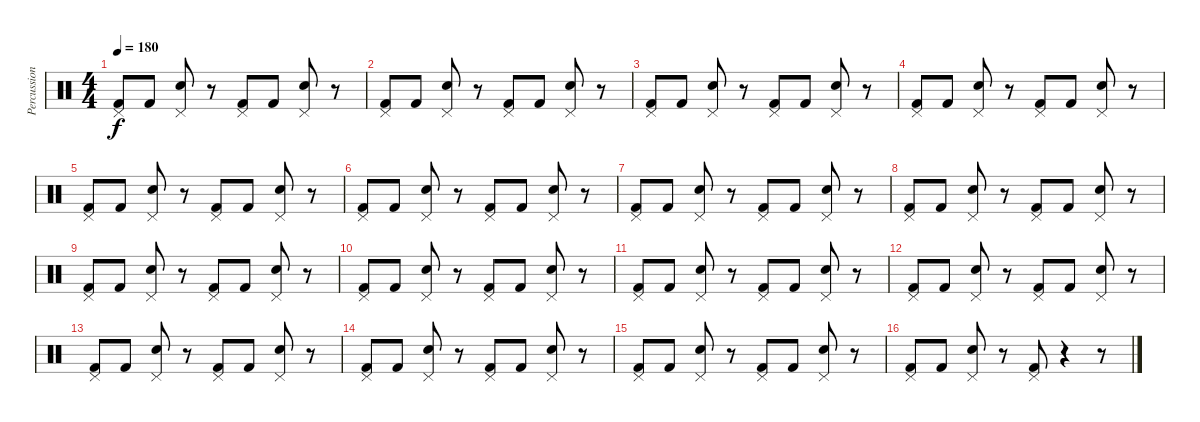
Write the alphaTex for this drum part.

\track ("Percussion" "Percussion") {instrument percussion}
\staff {score}
\articulation defaults
\ts (4 4)
\tempo 180
\clef neutral
\ks c
("Pedal Hi-Hat (hit)" "Kick (hit) 2").8{dy f} "Kick (hit) 2".8 ("Pedal Hi-Hat (hit)" "Electric Snare (hit)").8 r.8 ("Pedal Hi-Hat (hit)" "Kick (hit) 2").8 "Kick (hit) 2".8 ("Pedal Hi-Hat (hit)" "Electric Snare (hit)").8 r.8 |
("Pedal Hi-Hat (hit)" "Kick (hit) 2").8 "Kick (hit) 2".8 ("Pedal Hi-Hat (hit)" "Electric Snare (hit)").8 r.8 ("Pedal Hi-Hat (hit)" "Kick (hit) 2").8 "Kick (hit) 2".8 ("Pedal Hi-Hat (hit)" "Electric Snare (hit)").8 r.8 |
("Pedal Hi-Hat (hit)" "Kick (hit) 2").8 "Kick (hit) 2".8 ("Pedal Hi-Hat (hit)" "Electric Snare (hit)").8 r.8 ("Pedal Hi-Hat (hit)" "Kick (hit) 2").8 "Kick (hit) 2".8 ("Pedal Hi-Hat (hit)" "Electric Snare (hit)").8 r.8 |
("Pedal Hi-Hat (hit)" "Kick (hit) 2").8 "Kick (hit) 2".8 ("Pedal Hi-Hat (hit)" "Electric Snare (hit)").8 r.8 ("Pedal Hi-Hat (hit)" "Kick (hit) 2").8 "Kick (hit) 2".8 ("Pedal Hi-Hat (hit)" "Electric Snare (hit)").8 r.8 |
("Pedal Hi-Hat (hit)" "Kick (hit) 2").8 "Kick (hit) 2".8 ("Pedal Hi-Hat (hit)" "Electric Snare (hit)").8 r.8 ("Pedal Hi-Hat (hit)" "Kick (hit) 2").8 "Kick (hit) 2".8 ("Pedal Hi-Hat (hit)" "Electric Snare (hit)").8 r.8 |
("Pedal Hi-Hat (hit)" "Kick (hit) 2").8 "Kick (hit) 2".8 ("Pedal Hi-Hat (hit)" "Electric Snare (hit)").8 r.8 ("Pedal Hi-Hat (hit)" "Kick (hit) 2").8 "Kick (hit) 2".8 ("Pedal Hi-Hat (hit)" "Electric Snare (hit)").8 r.8 |
("Pedal Hi-Hat (hit)" "Kick (hit) 2").8 "Kick (hit) 2".8 ("Pedal Hi-Hat (hit)" "Electric Snare (hit)").8 r.8 ("Pedal Hi-Hat (hit)" "Kick (hit) 2").8 "Kick (hit) 2".8 ("Pedal Hi-Hat (hit)" "Electric Snare (hit)").8 r.8 |
("Pedal Hi-Hat (hit)" "Kick (hit) 2").8 "Kick (hit) 2".8 ("Pedal Hi-Hat (hit)" "Electric Snare (hit)").8 r.8 ("Pedal Hi-Hat (hit)" "Kick (hit) 2").8 "Kick (hit) 2".8 ("Pedal Hi-Hat (hit)" "Electric Snare (hit)").8 r.8 |
("Pedal Hi-Hat (hit)" "Kick (hit) 2").8 "Kick (hit) 2".8 ("Pedal Hi-Hat (hit)" "Electric Snare (hit)").8 r.8 ("Pedal Hi-Hat (hit)" "Kick (hit) 2").8 "Kick (hit) 2".8 ("Pedal Hi-Hat (hit)" "Electric Snare (hit)").8 r.8 |
("Pedal Hi-Hat (hit)" "Kick (hit) 2").8 "Kick (hit) 2".8 ("Pedal Hi-Hat (hit)" "Electric Snare (hit)").8 r.8 ("Pedal Hi-Hat (hit)" "Kick (hit) 2").8 "Kick (hit) 2".8 ("Pedal Hi-Hat (hit)" "Electric Snare (hit)").8 r.8 |
("Pedal Hi-Hat (hit)" "Kick (hit) 2").8 "Kick (hit) 2".8 ("Pedal Hi-Hat (hit)" "Electric Snare (hit)").8 r.8 ("Pedal Hi-Hat (hit)" "Kick (hit) 2").8 "Kick (hit) 2".8 ("Pedal Hi-Hat (hit)" "Electric Snare (hit)").8 r.8 |
("Pedal Hi-Hat (hit)" "Kick (hit) 2").8 "Kick (hit) 2".8 ("Pedal Hi-Hat (hit)" "Electric Snare (hit)").8 r.8 ("Pedal Hi-Hat (hit)" "Kick (hit) 2").8 "Kick (hit) 2".8 ("Pedal Hi-Hat (hit)" "Electric Snare (hit)").8 r.8 |
("Pedal Hi-Hat (hit)" "Kick (hit) 2").8 "Kick (hit) 2".8 ("Pedal Hi-Hat (hit)" "Electric Snare (hit)").8 r.8 ("Pedal Hi-Hat (hit)" "Kick (hit) 2").8 "Kick (hit) 2".8 ("Pedal Hi-Hat (hit)" "Electric Snare (hit)").8 r.8 |
("Pedal Hi-Hat (hit)" "Kick (hit) 2").8 "Kick (hit) 2".8 ("Pedal Hi-Hat (hit)" "Electric Snare (hit)").8 r.8 ("Pedal Hi-Hat (hit)" "Kick (hit) 2").8 "Kick (hit) 2".8 ("Pedal Hi-Hat (hit)" "Electric Snare (hit)").8 r.8 |
("Pedal Hi-Hat (hit)" "Kick (hit) 2").8 "Kick (hit) 2".8 ("Pedal Hi-Hat (hit)" "Electric Snare (hit)").8 r.8 ("Pedal Hi-Hat (hit)" "Kick (hit) 2").8 "Kick (hit) 2".8 ("Pedal Hi-Hat (hit)" "Electric Snare (hit)").8 r.8 |
("Pedal Hi-Hat (hit)" "Kick (hit) 2").8 "Kick (hit) 2".8 ("Pedal Hi-Hat (hit)" "Electric Snare (hit)").8 r.8 ("Pedal Hi-Hat (hit)" "Kick (hit) 2").8 r.4 r.8
